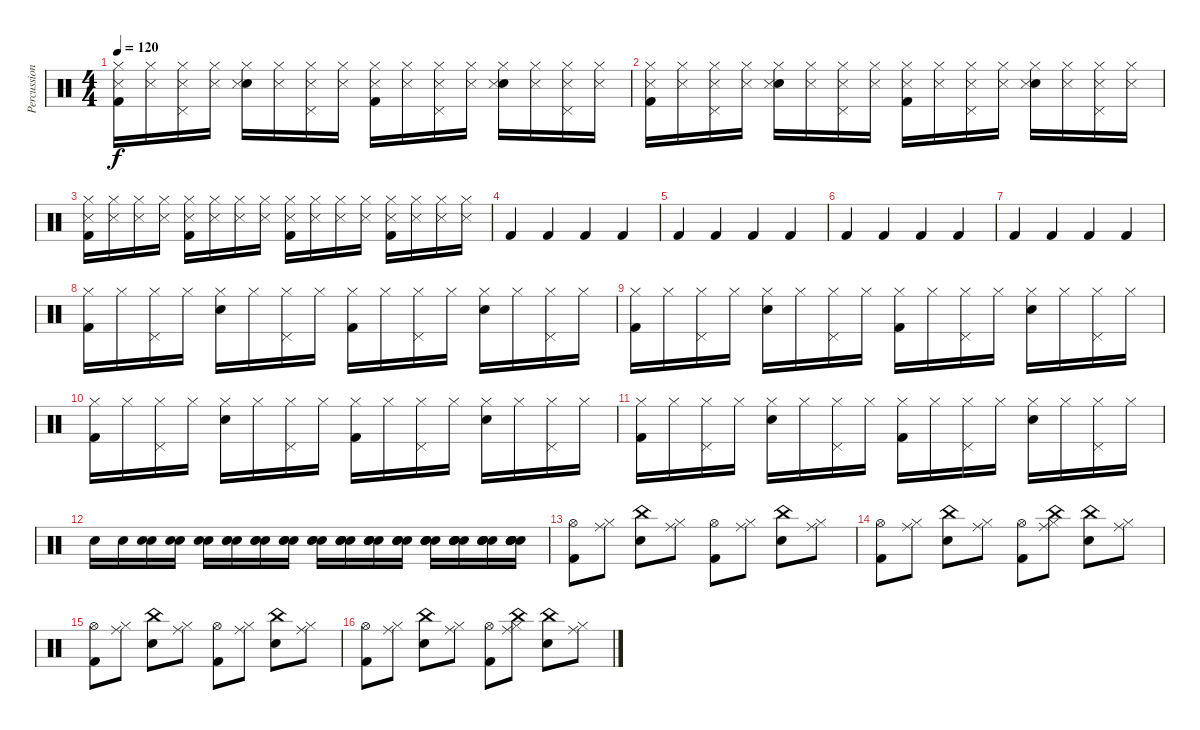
\track ("Percussion" "Percussion") {instrument percussion}
\staff {score}
\articulation defaults
\ts (4 4)
\tempo 120
\clef neutral
\ks c
("Hi-Hat (closed)" "Kick (hit) 2" "Metronome (hit)").16{dy f} ("Hi-Hat (closed)" "Metronome (hit)").16 ("Hi-Hat (closed)" "Pedal Hi-Hat (hit)" "Metronome (hit)").16 ("Hi-Hat (closed)" "Metronome (hit)").16 ("Hi-Hat (closed)" "Snare (hit) 2" "Metronome (hit)").16 ("Hi-Hat (closed)" "Metronome (hit)").16 ("Hi-Hat (closed)" "Pedal Hi-Hat (hit)" "Metronome (hit)").16 ("Hi-Hat (closed)" "Metronome (hit)").16 ("Hi-Hat (closed)" "Kick (hit) 2" "Metronome (hit)").16 ("Hi-Hat (closed)" "Metronome (hit)").16 ("Hi-Hat (closed)" "Pedal Hi-Hat (hit)" "Metronome (hit)").16 ("Hi-Hat (closed)" "Metronome (hit)").16 ("Hi-Hat (closed)" "Snare (hit) 2" "Metronome (hit)").16 ("Hi-Hat (closed)" "Metronome (hit)").16 ("Hi-Hat (closed)" "Pedal Hi-Hat (hit)" "Metronome (hit)").16 ("Hi-Hat (closed)" "Metronome (hit)").16 |
("Hi-Hat (closed)" "Kick (hit) 2" "Metronome (hit)").16 ("Hi-Hat (closed)" "Metronome (hit)").16 ("Hi-Hat (closed)" "Pedal Hi-Hat (hit)" "Metronome (hit)").16 ("Hi-Hat (closed)" "Metronome (hit)").16 ("Hi-Hat (closed)" "Snare (hit) 2" "Metronome (hit)").16 ("Hi-Hat (closed)" "Metronome (hit)").16 ("Hi-Hat (closed)" "Pedal Hi-Hat (hit)" "Metronome (hit)").16 ("Hi-Hat (closed)" "Metronome (hit)").16 ("Hi-Hat (closed)" "Kick (hit) 2" "Metronome (hit)").16 ("Hi-Hat (closed)" "Metronome (hit)").16 ("Hi-Hat (closed)" "Pedal Hi-Hat (hit)" "Metronome (hit)").16 ("Hi-Hat (closed)" "Metronome (hit)").16 ("Hi-Hat (closed)" "Snare (hit) 2" "Metronome (hit)").16 ("Hi-Hat (closed)" "Metronome (hit)").16 ("Hi-Hat (closed)" "Pedal Hi-Hat (hit)" "Metronome (hit)").16 ("Hi-Hat (closed)" "Metronome (hit)").16 |
("Hi-Hat (closed)" "Kick (hit) 2" "Metronome (hit)").16 ("Hi-Hat (closed)" "Metronome (hit)").16 ("Hi-Hat (closed)" "Metronome (hit)").16 ("Hi-Hat (closed)" "Metronome (hit)").16 ("Hi-Hat (closed)" "Kick (hit) 2" "Metronome (hit)").16 ("Hi-Hat (closed)" "Metronome (hit)").16 ("Hi-Hat (closed)" "Metronome (hit)").16 ("Hi-Hat (closed)" "Metronome (hit)").16 ("Hi-Hat (closed)" "Kick (hit) 2" "Metronome (hit)").16 ("Hi-Hat (closed)" "Metronome (hit)").16 ("Hi-Hat (closed)" "Metronome (hit)").16 ("Hi-Hat (closed)" "Metronome (hit)").16 ("Hi-Hat (closed)" "Kick (hit) 2" "Metronome (hit)").16 ("Hi-Hat (closed)" "Metronome (hit)").16 ("Hi-Hat (closed)" "Metronome (hit)").16 ("Hi-Hat (closed)" "Metronome (hit)").16 |
"Kick (hit) 2".4 "Kick (hit) 2".4 "Kick (hit) 2".4 "Kick (hit) 2".4 |
"Kick (hit) 2".4 "Kick (hit) 2".4 "Kick (hit) 2".4 "Kick (hit) 2".4 |
"Kick (hit) 2".4 "Kick (hit) 2".4 "Kick (hit) 2".4 "Kick (hit) 2".4 |
"Kick (hit) 2".4 "Kick (hit) 2".4 "Kick (hit) 2".4 "Kick (hit) 2".4 |
("Hi-Hat (closed)" "Kick (hit) 2").16 "Hi-Hat (closed)".16 ("Hi-Hat (closed)" "Pedal Hi-Hat (hit)").16 "Hi-Hat (closed)".16 ("Hi-Hat (closed)" "Snare (hit) 2").16 "Hi-Hat (closed)".16 ("Hi-Hat (closed)" "Pedal Hi-Hat (hit)").16 "Hi-Hat (closed)".16 ("Hi-Hat (closed)" "Kick (hit) 2").16 "Hi-Hat (closed)".16 ("Hi-Hat (closed)" "Pedal Hi-Hat (hit)").16 "Hi-Hat (closed)".16 ("Hi-Hat (closed)" "Snare (hit) 2").16 "Hi-Hat (closed)".16 ("Hi-Hat (closed)" "Pedal Hi-Hat (hit)").16 "Hi-Hat (closed)".16 |
("Hi-Hat (closed)" "Kick (hit) 2").16 "Hi-Hat (closed)".16 ("Hi-Hat (closed)" "Pedal Hi-Hat (hit)").16 "Hi-Hat (closed)".16 ("Hi-Hat (closed)" "Snare (hit) 2").16 "Hi-Hat (closed)".16 ("Hi-Hat (closed)" "Pedal Hi-Hat (hit)").16 "Hi-Hat (closed)".16 ("Hi-Hat (closed)" "Kick (hit) 2").16 "Hi-Hat (closed)".16 ("Hi-Hat (closed)" "Pedal Hi-Hat (hit)").16 "Hi-Hat (closed)".16 ("Hi-Hat (closed)" "Snare (hit) 2").16 "Hi-Hat (closed)".16 ("Hi-Hat (closed)" "Pedal Hi-Hat (hit)").16 "Hi-Hat (closed)".16 |
("Hi-Hat (closed)" "Kick (hit) 2").16 "Hi-Hat (closed)".16 ("Hi-Hat (closed)" "Pedal Hi-Hat (hit)").16 "Hi-Hat (closed)".16 ("Hi-Hat (closed)" "Snare (hit) 2").16 "Hi-Hat (closed)".16 ("Hi-Hat (closed)" "Pedal Hi-Hat (hit)").16 "Hi-Hat (closed)".16 ("Hi-Hat (closed)" "Kick (hit) 2").16 "Hi-Hat (closed)".16 ("Hi-Hat (closed)" "Pedal Hi-Hat (hit)").16 "Hi-Hat (closed)".16 ("Hi-Hat (closed)" "Snare (hit) 2").16 "Hi-Hat (closed)".16 ("Hi-Hat (closed)" "Pedal Hi-Hat (hit)").16 "Hi-Hat (closed)".16 |
("Hi-Hat (closed)" "Kick (hit) 2").16 "Hi-Hat (closed)".16 ("Hi-Hat (closed)" "Pedal Hi-Hat (hit)").16 "Hi-Hat (closed)".16 ("Hi-Hat (closed)" "Snare (hit) 2").16 "Hi-Hat (closed)".16 ("Hi-Hat (closed)" "Pedal Hi-Hat (hit)").16 "Hi-Hat (closed)".16 ("Hi-Hat (closed)" "Kick (hit) 2").16 "Hi-Hat (closed)".16 ("Hi-Hat (closed)" "Pedal Hi-Hat (hit)").16 "Hi-Hat (closed)".16 ("Hi-Hat (closed)" "Snare (hit) 2").16 "Hi-Hat (closed)".16 ("Hi-Hat (closed)" "Pedal Hi-Hat (hit)").16 "Hi-Hat (closed)".16 |
"Snare (hit) 2".16 "Snare (hit) 2".16 ("Snare (hit) 2" "Snare (hit) 2").16 ("Snare (hit) 2" "Snare (hit) 2").16 ("Snare (hit) 2" "Snare (hit) 2").16 ("Snare (hit) 2" "Snare (hit) 2" "Snare (hit) 2").16 ("Snare (hit) 2" "Snare (hit) 2" "Snare (hit) 2").16 ("Snare (hit) 2" "Snare (hit) 2" "Snare (hit) 2").16 ("Snare (hit) 2" "Snare (hit) 2" "Snare (hit) 2").16 ("Snare (hit) 2" "Snare (hit) 2" "Snare (hit) 2" "Snare (hit) 2").16 ("Snare (hit) 2" "Snare (hit) 2" "Snare (hit) 2" "Snare (hit) 2").16 ("Snare (hit) 2" "Snare (hit) 2" "Snare (hit) 2" "Snare (hit) 2").16 ("Snare (hit) 2" "Snare (hit) 2" "Snare (hit) 2" "Snare (hit) 2").16 ("Snare (hit) 2" "Snare (hit) 2" "Snare (hit) 2" "Snare (hit) 2" "Snare (hit) 2").16 ("Snare (hit) 2" "Snare (hit) 2" "Snare (hit) 2" "Snare (hit) 2" "Snare (hit) 2").16 ("Snare (hit) 2" "Snare (hit) 2" "Snare (hit) 2" "Snare (hit) 2" "Snare (hit) 2" "Snare (hit) 2").16 |
("Hi-Hat (open)" "Kick (hit) 2").8 ("Hi-Hat (closed)" "Ride (middle)").8 ("China (hit)" "Snare (hit) 2").8 ("Hi-Hat (closed)" "Ride (middle)").8 ("Hi-Hat (open)" "Kick (hit) 2").8 ("Hi-Hat (closed)" "Ride (middle)").8 ("China (hit)" "Snare (hit) 2").8 ("Hi-Hat (closed)" "Ride (middle)").8 |
("Hi-Hat (open)" "Kick (hit) 2").8 ("Hi-Hat (closed)" "Ride (middle)").8 ("China (hit)" "Snare (hit) 2").8 ("Hi-Hat (closed)" "Ride (middle)").8 ("Hi-Hat (open)" "Kick (hit) 2").8 ("Hi-Hat (closed)" "China (hit)" "Ride (middle)").8 ("China (hit)" "Snare (hit) 2").8 ("Hi-Hat (closed)" "Ride (middle)").8 |
("Hi-Hat (open)" "Kick (hit) 2").8 ("Hi-Hat (closed)" "Ride (middle)").8 ("China (hit)" "Snare (hit) 2").8 ("Hi-Hat (closed)" "Ride (middle)").8 ("Hi-Hat (open)" "Kick (hit) 2").8 ("Hi-Hat (closed)" "Ride (middle)").8 ("China (hit)" "Snare (hit) 2").8 ("Hi-Hat (closed)" "Ride (middle)").8 |
("Hi-Hat (open)" "Kick (hit) 2").8 ("Hi-Hat (closed)" "Ride (middle)").8 ("China (hit)" "Snare (hit) 2").8 ("Hi-Hat (closed)" "Ride (middle)").8 ("Hi-Hat (open)" "Kick (hit) 2").8 ("Hi-Hat (closed)" "China (hit)" "Ride (middle)").8 ("China (hit)" "Snare (hit) 2").8 ("Hi-Hat (closed)" "Ride (middle)").8
